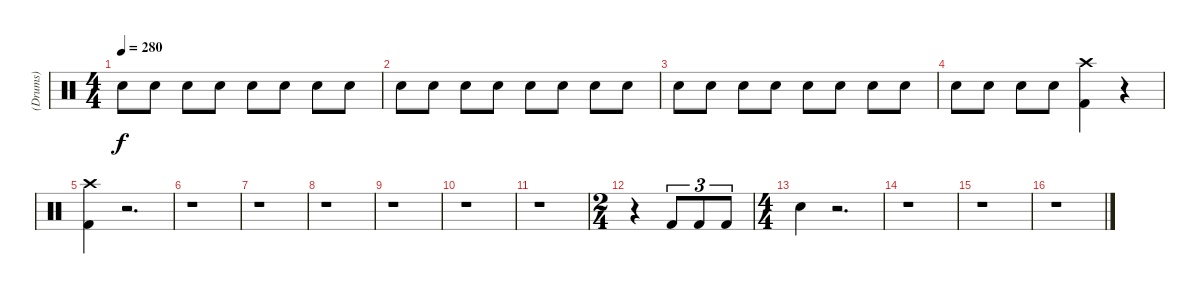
\track ("(Drums)" "(Drums)") {instrument percussion}
\staff {score}
\articulation defaults
\ts (4 4)
\tempo 280
\tempo 240
\tempo 280
\clef neutral
\ks c "Snare (hit) 2".8{dy f} "Snare (hit) 2".8 "Snare (hit) 2".8 "Snare (hit) 2".8 "Snare (hit) 2".8 "Snare (hit) 2".8 "Snare (hit) 2".8 "Snare (hit) 2".8
|
"Snare (hit) 2".8 "Snare (hit) 2".8 "Snare (hit) 2".8 "Snare (hit) 2".8 "Snare (hit) 2".8 "Snare (hit) 2".8 "Snare (hit) 2".8 "Snare (hit) 2".8 |
"Snare (hit) 2".8 "Snare (hit) 2".8 "Snare (hit) 2".8 "Snare (hit) 2".8 "Snare (hit) 2".8 "Snare (hit) 2".8 "Snare (hit) 2".8 "Snare (hit) 2".8 |
"Snare (hit) 2".8 "Snare (hit) 2".8 "Snare (hit) 2".8 "Snare (hit) 2".8 ("Kick (hit) 2" "Crash high (hit)").4 r.4 |
("Kick (hit) 2" "Crash high (hit)").4 r.2{d} |
r.1 |
r.1 |
r.1 |
r.1 |
r.1 |
r.1 |
\ts (2 4)
r.4 "Kick (hit) 2".8{tu (3 2)} "Kick (hit) 2".8{tu (3 2)} "Kick (hit) 2".8{tu (3 2)} |
\ts (4 4)
"Snare (hit) 2".4 r.2{d} |
r.1 |
r.1 |
r.1
